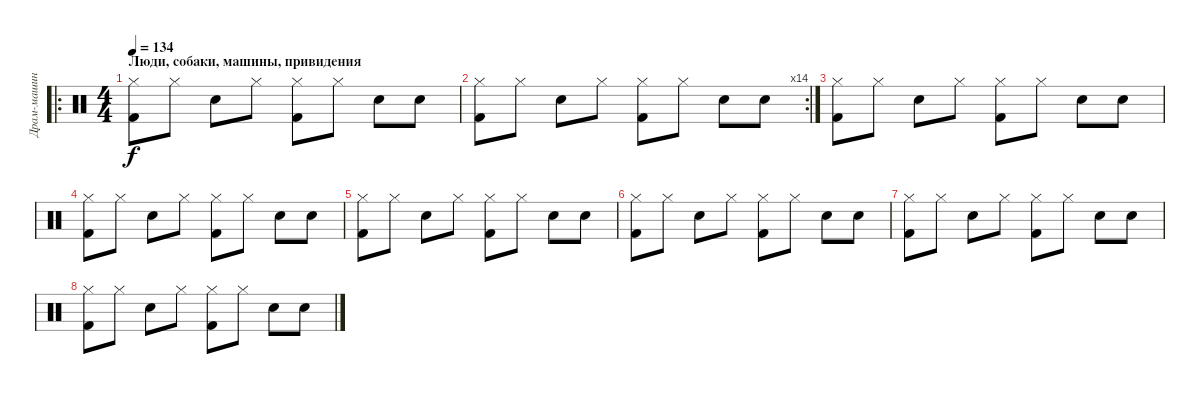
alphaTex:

\track ("Драм-машина))" "Драм-машин") {instrument percussion}
\staff {score}
\articulation defaults
\ro
\ts (4 4)
\section ("" "Люди, собаки, машины, привидения")
\tempo 134
\clef neutral
\ks c
("Hi-Hat (closed)" "Kick (hit) 2").8{dy f} "Hi-Hat (closed)".8 "Electric Snare (hit)".8 "Hi-Hat (closed)".8 ("Hi-Hat (closed)" "Kick (hit) 2").8 "Hi-Hat (closed)".8 "Electric Snare (hit)".8 "Snare (hit) 2".8 |
\rc 14
("Hi-Hat (closed)" "Kick (hit) 2").8 "Hi-Hat (closed)".8 "Electric Snare (hit)".8 "Hi-Hat (closed)".8 ("Hi-Hat (closed)" "Kick (hit) 2").8 "Hi-Hat (closed)".8 "Electric Snare (hit)".8 "Snare (hit) 2".8 |
("Hi-Hat (closed)" "Kick (hit) 2").8{volume 11} "Hi-Hat (closed)".8 "Electric Snare (hit)".8 "Hi-Hat (closed)".8 ("Hi-Hat (closed)" "Kick (hit) 2").8 "Hi-Hat (closed)".8 "Electric Snare (hit)".8 "Snare (hit) 2".8 |
("Hi-Hat (closed)" "Kick (hit) 2").8 "Hi-Hat (closed)".8 "Electric Snare (hit)".8 "Hi-Hat (closed)".8 ("Hi-Hat (closed)" "Kick (hit) 2").8 "Hi-Hat (closed)".8 "Electric Snare (hit)".8 "Snare (hit) 2".8 |
("Hi-Hat (closed)" "Kick (hit) 2").8 "Hi-Hat (closed)".8 "Electric Snare (hit)".8 "Hi-Hat (closed)".8 ("Hi-Hat (closed)" "Kick (hit) 2").8 "Hi-Hat (closed)".8 "Electric Snare (hit)".8 "Snare (hit) 2".8 |
("Hi-Hat (closed)" "Kick (hit) 2").8 "Hi-Hat (closed)".8 "Electric Snare (hit)".8 "Hi-Hat (closed)".8 ("Hi-Hat (closed)" "Kick (hit) 2").8 "Hi-Hat (closed)".8 "Electric Snare (hit)".8 "Snare (hit) 2".8 |
("Hi-Hat (closed)" "Kick (hit) 2").8 "Hi-Hat (closed)".8 "Electric Snare (hit)".8 "Hi-Hat (closed)".8 ("Hi-Hat (closed)" "Kick (hit) 2").8 "Hi-Hat (closed)".8 "Electric Snare (hit)".8 "Snare (hit) 2".8 |
("Hi-Hat (closed)" "Kick (hit) 2").8 "Hi-Hat (closed)".8 "Electric Snare (hit)".8 "Hi-Hat (closed)".8 ("Hi-Hat (closed)" "Kick (hit) 2").8 "Hi-Hat (closed)".8 "Electric Snare (hit)".8 "Snare (hit) 2".8
